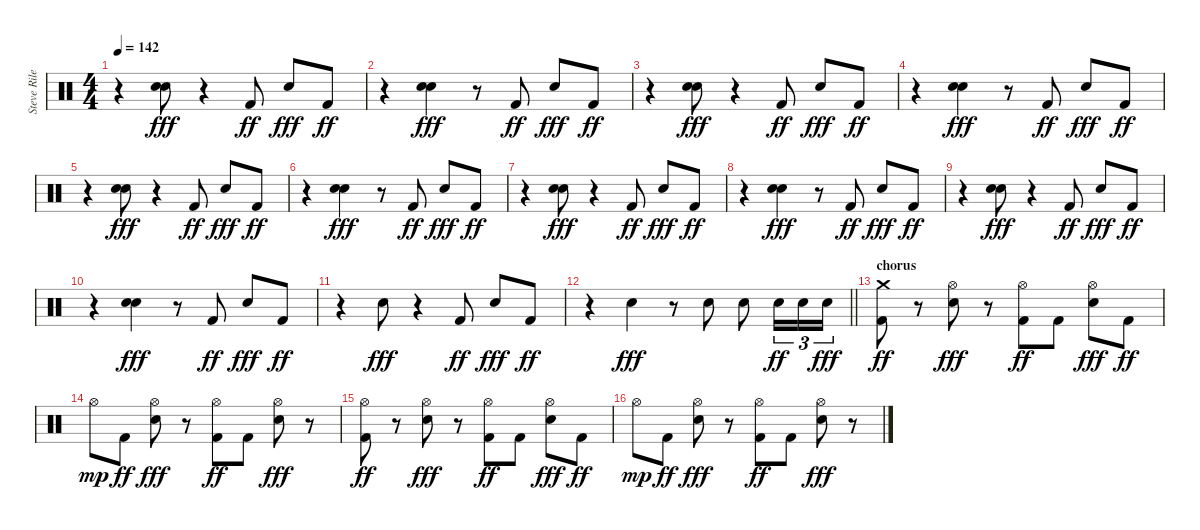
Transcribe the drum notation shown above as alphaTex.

\track ("Steve Riley" "Steve Rile") {instrument percussion}
\staff {score}
\articulation defaults
\ts (4 4)
\tempo 142
\clef neutral
\ks c
r.4{dy ff} ("Electric Snare (hit)" "Electric Snare (hit)").8{bd 60 dy fff} r.4 "Kick (hit) 2".8{dy ff} "Electric Snare (hit)".8{dy fff} "Kick (hit) 2".8{dy ff} |
r.4 ("Electric Snare (hit)" "Electric Snare (hit)").4{bd 60 dy fff} r.8 "Kick (hit) 2".8{dy ff} "Electric Snare (hit)".8{dy fff} "Kick (hit) 2".8{dy ff} |
r.4 ("Electric Snare (hit)" "Electric Snare (hit)").8{bd 60 dy fff} r.4 "Kick (hit) 2".8{dy ff} "Electric Snare (hit)".8{dy fff} "Kick (hit) 2".8{dy ff} |
r.4 ("Electric Snare (hit)" "Electric Snare (hit)").4{bd 60 dy fff} r.8 "Kick (hit) 2".8{dy ff} "Electric Snare (hit)".8{dy fff} "Kick (hit) 2".8{dy ff} |
r.4 ("Electric Snare (hit)" "Electric Snare (hit)").8{bd 60 dy fff} r.4 "Kick (hit) 2".8{dy ff} "Electric Snare (hit)".8{dy fff} "Kick (hit) 2".8{dy ff} |
r.4 ("Electric Snare (hit)" "Electric Snare (hit)").4{bd 60 dy fff} r.8 "Kick (hit) 2".8{dy ff} "Electric Snare (hit)".8{dy fff} "Kick (hit) 2".8{dy ff} |
r.4 ("Electric Snare (hit)" "Electric Snare (hit)").8{bd 60 dy fff} r.4 "Kick (hit) 2".8{dy ff} "Electric Snare (hit)".8{dy fff} "Kick (hit) 2".8{dy ff} |
r.4 ("Electric Snare (hit)" "Electric Snare (hit)").4{bd 60 dy fff} r.8 "Kick (hit) 2".8{dy ff} "Electric Snare (hit)".8{dy fff} "Kick (hit) 2".8{dy ff} |
r.4 ("Electric Snare (hit)" "Electric Snare (hit)").8{bd 60 dy fff} r.4 "Kick (hit) 2".8{dy ff} "Electric Snare (hit)".8{dy fff} "Kick (hit) 2".8{dy ff} |
r.4 ("Electric Snare (hit)" "Electric Snare (hit)").4{bd 60 dy fff} r.8 "Kick (hit) 2".8{dy ff} "Electric Snare (hit)".8{dy fff} "Kick (hit) 2".8{dy ff} |
r.4 "Electric Snare (hit)".8{dy fff} r.4 "Kick (hit) 2".8{dy ff} "Electric Snare (hit)".8{dy fff} "Kick (hit) 2".8{dy ff} |
\barLineRight lightlight
r.4 "Electric Snare (hit)".4{dy fff} r.8 "Electric Snare (hit)".8 "Electric Snare (hit)".8 "Electric Snare (hit)".16{tu (3 2) dy ff} "Electric Snare (hit)".16{tu (3 2)} "Electric Snare (hit)".16{tu (3 2) dy fff} |
\section ("" "chorus")
("Crash medium (hit)" "Kick (hit) 2").8{dy ff} r.8 ("Hi-Hat (open)" "Electric Snare (hit)").8{dy fff} r.8 ("Hi-Hat (open)" "Kick (hit) 2").8{dy ff} "Kick (hit) 2".8 ("Hi-Hat (open)" "Electric Snare (hit)").8{dy fff} "Kick (hit) 2".8{dy ff} |
"Hi-Hat (open)".8{dy mp} "Kick (hit) 2".8{dy ff} ("Hi-Hat (open)" "Electric Snare (hit)").8{dy fff} r.8 ("Hi-Hat (open)" "Kick (hit) 2").8{dy ff} "Kick (hit) 2".8 ("Hi-Hat (open)" "Electric Snare (hit)").8{dy fff} r.8 |
("Hi-Hat (open)" "Kick (hit) 2").8{dy ff} r.8 ("Hi-Hat (open)" "Electric Snare (hit)").8{dy fff} r.8 ("Hi-Hat (open)" "Kick (hit) 2").8{dy ff} "Kick (hit) 2".8 ("Hi-Hat (open)" "Electric Snare (hit)").8{dy fff} "Kick (hit) 2".8{dy ff} |
"Hi-Hat (open)".8{dy mp} "Kick (hit) 2".8{dy ff} ("Hi-Hat (open)" "Electric Snare (hit)").8{dy fff} r.8 ("Hi-Hat (open)" "Kick (hit) 2").8{dy ff} "Kick (hit) 2".8 ("Hi-Hat (open)" "Electric Snare (hit)").8{dy fff} r.8
